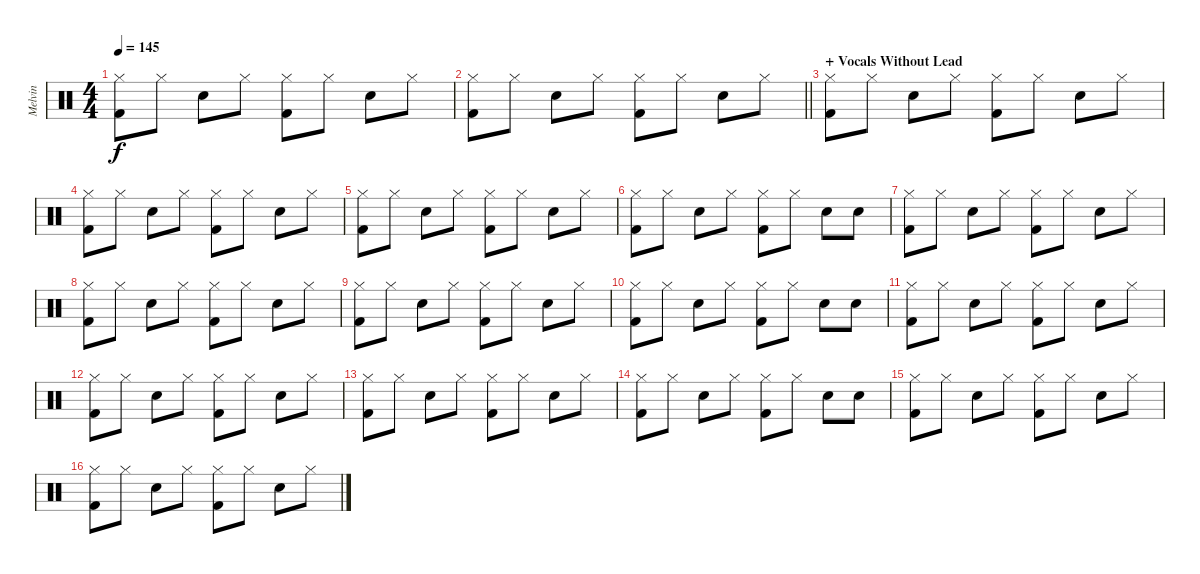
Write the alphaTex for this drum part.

\track ("Melvin" "Melvin") {instrument percussion}
\staff {score}
\articulation defaults
\ts (4 4)
\tempo 145
\clef neutral
\ks c
("Hi-Hat (closed)" "Kick (hit) 2").8{dy f} "Hi-Hat (closed)".8 "Snare (hit) 2".8 "Hi-Hat (closed)".8 ("Hi-Hat (closed)" "Kick (hit) 2").8 "Hi-Hat (closed)".8 "Snare (hit) 2".8 "Hi-Hat (closed)".8 |
\barLineRight lightlight
("Hi-Hat (closed)" "Kick (hit) 2").8 "Hi-Hat (closed)".8 "Snare (hit) 2".8 "Hi-Hat (closed)".8 ("Hi-Hat (closed)" "Kick (hit) 2").8 "Hi-Hat (closed)".8 "Snare (hit) 2".8 "Hi-Hat (closed)".8 |
\section ("" "+ Vocals Without Lead")
("Hi-Hat (closed)" "Kick (hit) 2").8 "Hi-Hat (closed)".8 "Snare (hit) 2".8 "Hi-Hat (closed)".8 ("Hi-Hat (closed)" "Kick (hit) 2").8 "Hi-Hat (closed)".8 "Snare (hit) 2".8 "Hi-Hat (closed)".8 |
("Hi-Hat (closed)" "Kick (hit) 2").8 "Hi-Hat (closed)".8 "Snare (hit) 2".8 "Hi-Hat (closed)".8 ("Hi-Hat (closed)" "Kick (hit) 2").8 "Hi-Hat (closed)".8 "Snare (hit) 2".8 "Hi-Hat (closed)".8 |
("Hi-Hat (closed)" "Kick (hit) 2").8 "Hi-Hat (closed)".8 "Snare (hit) 2".8 "Hi-Hat (closed)".8 ("Hi-Hat (closed)" "Kick (hit) 2").8 "Hi-Hat (closed)".8 "Snare (hit) 2".8 "Hi-Hat (closed)".8 |
("Hi-Hat (closed)" "Kick (hit) 2").8 "Hi-Hat (closed)".8 "Snare (hit) 2".8 "Hi-Hat (closed)".8 ("Hi-Hat (closed)" "Kick (hit) 2").8 "Hi-Hat (closed)".8 "Snare (hit) 2".8 "Snare (hit) 2".8 |
("Hi-Hat (closed)" "Kick (hit) 2").8 "Hi-Hat (closed)".8 "Snare (hit) 2".8 "Hi-Hat (closed)".8 ("Hi-Hat (closed)" "Kick (hit) 2").8 "Hi-Hat (closed)".8 "Snare (hit) 2".8 "Hi-Hat (closed)".8 |
("Hi-Hat (closed)" "Kick (hit) 2").8 "Hi-Hat (closed)".8 "Snare (hit) 2".8 "Hi-Hat (closed)".8 ("Hi-Hat (closed)" "Kick (hit) 2").8 "Hi-Hat (closed)".8 "Snare (hit) 2".8 "Hi-Hat (closed)".8 |
("Hi-Hat (closed)" "Kick (hit) 2").8 "Hi-Hat (closed)".8 "Snare (hit) 2".8 "Hi-Hat (closed)".8 ("Hi-Hat (closed)" "Kick (hit) 2").8 "Hi-Hat (closed)".8 "Snare (hit) 2".8 "Hi-Hat (closed)".8 |
("Hi-Hat (closed)" "Kick (hit) 2").8 "Hi-Hat (closed)".8 "Snare (hit) 2".8 "Hi-Hat (closed)".8 ("Hi-Hat (closed)" "Kick (hit) 2").8 "Hi-Hat (closed)".8 "Snare (hit) 2".8 "Snare (hit) 2".8 |
("Hi-Hat (closed)" "Kick (hit) 2").8 "Hi-Hat (closed)".8 "Snare (hit) 2".8 "Hi-Hat (closed)".8 ("Hi-Hat (closed)" "Kick (hit) 2").8 "Hi-Hat (closed)".8 "Snare (hit) 2".8 "Hi-Hat (closed)".8 |
("Hi-Hat (closed)" "Kick (hit) 2").8 "Hi-Hat (closed)".8 "Snare (hit) 2".8 "Hi-Hat (closed)".8 ("Hi-Hat (closed)" "Kick (hit) 2").8 "Hi-Hat (closed)".8 "Snare (hit) 2".8 "Hi-Hat (closed)".8 |
("Hi-Hat (closed)" "Kick (hit) 2").8 "Hi-Hat (closed)".8 "Snare (hit) 2".8 "Hi-Hat (closed)".8 ("Hi-Hat (closed)" "Kick (hit) 2").8 "Hi-Hat (closed)".8 "Snare (hit) 2".8 "Hi-Hat (closed)".8 |
("Hi-Hat (closed)" "Kick (hit) 2").8 "Hi-Hat (closed)".8 "Snare (hit) 2".8 "Hi-Hat (closed)".8 ("Hi-Hat (closed)" "Kick (hit) 2").8 "Hi-Hat (closed)".8 "Snare (hit) 2".8 "Snare (hit) 2".8 |
("Hi-Hat (closed)" "Kick (hit) 2").8 "Hi-Hat (closed)".8 "Snare (hit) 2".8 "Hi-Hat (closed)".8 ("Hi-Hat (closed)" "Kick (hit) 2").8 "Hi-Hat (closed)".8 "Snare (hit) 2".8 "Hi-Hat (closed)".8 |
("Hi-Hat (closed)" "Kick (hit) 2").8 "Hi-Hat (closed)".8 "Snare (hit) 2".8 "Hi-Hat (closed)".8 ("Hi-Hat (closed)" "Kick (hit) 2").8 "Hi-Hat (closed)".8 "Snare (hit) 2".8 "Hi-Hat (closed)".8
